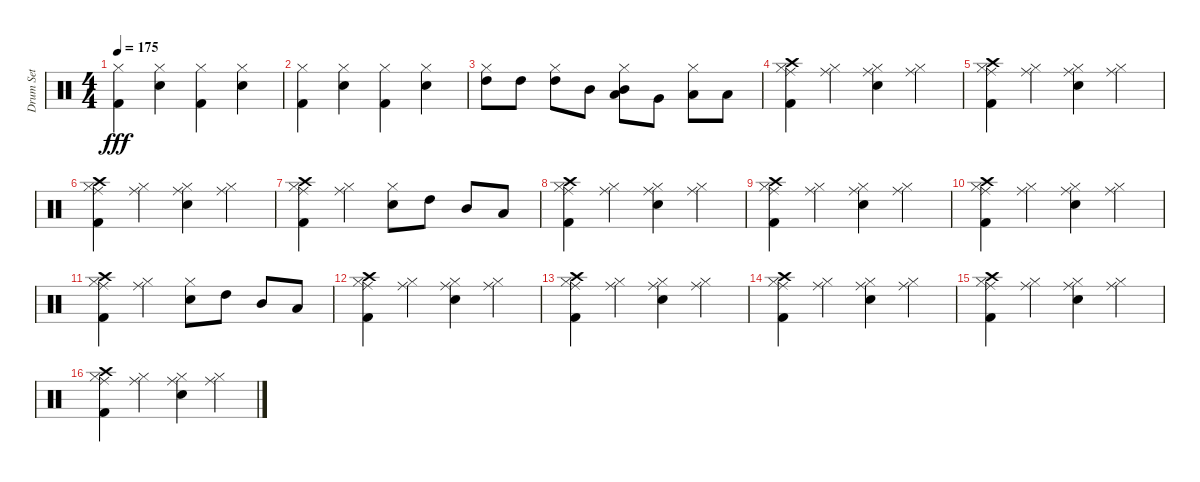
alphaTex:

\track ("Drum Set" "Drum Set") {instrument percussion}
\staff {score}
\articulation defaults
\ts (4 4)
\tempo 175
\clef neutral
\ks c
("Kick (hit) 2" "Hi-Hat (closed)").4{dy fff} ("Electric Snare (hit)" "Hi-Hat (closed)").4 ("Kick (hit) 2" "Hi-Hat (closed)").4 ("Electric Snare (hit)" "Hi-Hat (closed)").4 |
("Kick (hit) 2" "Hi-Hat (closed)").4 ("Electric Snare (hit)" "Hi-Hat (closed)").4 ("Kick (hit) 2" "Hi-Hat (closed)").4 ("Electric Snare (hit)" "Hi-Hat (closed)").4 |
("High Tom (hit)" "Hi-Hat (closed)").8 "High Tom (hit)".8 ("High Tom (hit)" "Hi-Hat (closed)").8 "Mid Tom (hit)".8 ("Low Tom (hit)" "Mid Tom (hit)" "Hi-Hat (closed)").8 "Very Low Tom (hit)".8 ("Low Floor Tom (hit)" "Hi-Hat (closed)").8 "Low Floor Tom (hit)".8 |
("Kick (hit) 2" "Crash high (hit)" "Hi-Hat (closed)" "Ride (middle)").4 ("Hi-Hat (closed)" "Ride (middle)").4 ("Electric Snare (hit)" "Ride (middle)" "Hi-Hat (closed)").4 ("Ride (middle)" "Hi-Hat (closed)").4 |
("Kick (hit) 2" "Ride (middle)" "Hi-Hat (closed)" "Crash high (hit)").4 ("Ride (middle)" "Hi-Hat (closed)").4 ("Electric Snare (hit)" "Ride (middle)" "Hi-Hat (closed)").4 ("Ride (middle)" "Hi-Hat (closed)").4 |
("Kick (hit) 2" "Hi-Hat (closed)" "Ride (middle)" "Crash high (hit)").4 ("Ride (middle)" "Hi-Hat (closed)").4 ("Electric Snare (hit)" "Hi-Hat (closed)" "Ride (middle)").4 ("Hi-Hat (closed)" "Ride (middle)").4 |
("Kick (hit) 2" "Ride (middle)" "Hi-Hat (closed)" "Crash high (hit)").4 ("Ride (middle)" "Hi-Hat (closed)").4 ("Electric Snare (hit)" "Hi-Hat (closed)").8 "High Tom (hit)".8 "Mid Tom (hit)".8 "Low Tom (hit)".8 |
("Kick (hit) 2" "Ride (middle)" "Crash high (hit)" "Hi-Hat (closed)").4 ("Ride (middle)" "Hi-Hat (closed)").4 ("Electric Snare (hit)" "Hi-Hat (closed)" "Ride (middle)").4 ("Ride (middle)" "Hi-Hat (closed)").4 |
("Kick (hit) 2" "Hi-Hat (closed)" "Ride (middle)" "Crash high (hit)").4 ("Hi-Hat (closed)" "Ride (middle)").4 ("Electric Snare (hit)" "Ride (middle)" "Hi-Hat (closed)").4 ("Ride (middle)" "Hi-Hat (closed)").4 |
("Kick (hit) 2" "Crash high (hit)" "Hi-Hat (closed)" "Ride (middle)").4 ("Hi-Hat (closed)" "Ride (middle)").4 ("Electric Snare (hit)" "Hi-Hat (closed)" "Ride (middle)").4 ("Ride (middle)" "Hi-Hat (closed)").4 |
("Kick (hit) 2" "Crash high (hit)" "Ride (middle)" "Hi-Hat (closed)").4 ("Ride (middle)" "Hi-Hat (closed)").4 ("Electric Snare (hit)" "Hi-Hat (closed)").8 "High Tom (hit)".8 "Mid Tom (hit)".8 "Low Tom (hit)".8 |
("Kick (hit) 2" "Crash high (hit)" "Ride (middle)" "Hi-Hat (closed)").4 ("Ride (middle)" "Hi-Hat (closed)").4 ("Electric Snare (hit)" "Ride (middle)" "Hi-Hat (closed)").4 ("Hi-Hat (closed)" "Ride (middle)").4 |
("Kick (hit) 2" "Ride (middle)" "Crash high (hit)" "Hi-Hat (closed)").4 ("Hi-Hat (closed)" "Ride (middle)").4 ("Electric Snare (hit)" "Ride (middle)" "Hi-Hat (closed)").4 ("Ride (middle)" "Hi-Hat (closed)").4 |
("Kick (hit) 2" "Hi-Hat (closed)" "Crash high (hit)" "Ride (middle)").4 ("Ride (middle)" "Hi-Hat (closed)").4 ("Electric Snare (hit)" "Hi-Hat (closed)" "Ride (middle)").4 ("Ride (middle)" "Hi-Hat (closed)").4 |
("Kick (hit) 2" "Crash high (hit)" "Ride (middle)" "Hi-Hat (closed)").4 ("Hi-Hat (closed)" "Ride (middle)").4 ("Electric Snare (hit)" "Hi-Hat (closed)" "Ride (middle)").4 ("Hi-Hat (closed)" "Ride (middle)").4 |
("Kick (hit) 2" "Crash high (hit)" "Hi-Hat (closed)" "Ride (middle)").4 ("Ride (middle)" "Hi-Hat (closed)").4 ("Electric Snare (hit)" "Ride (middle)" "Hi-Hat (closed)").4 ("Ride (middle)" "Hi-Hat (closed)").4
